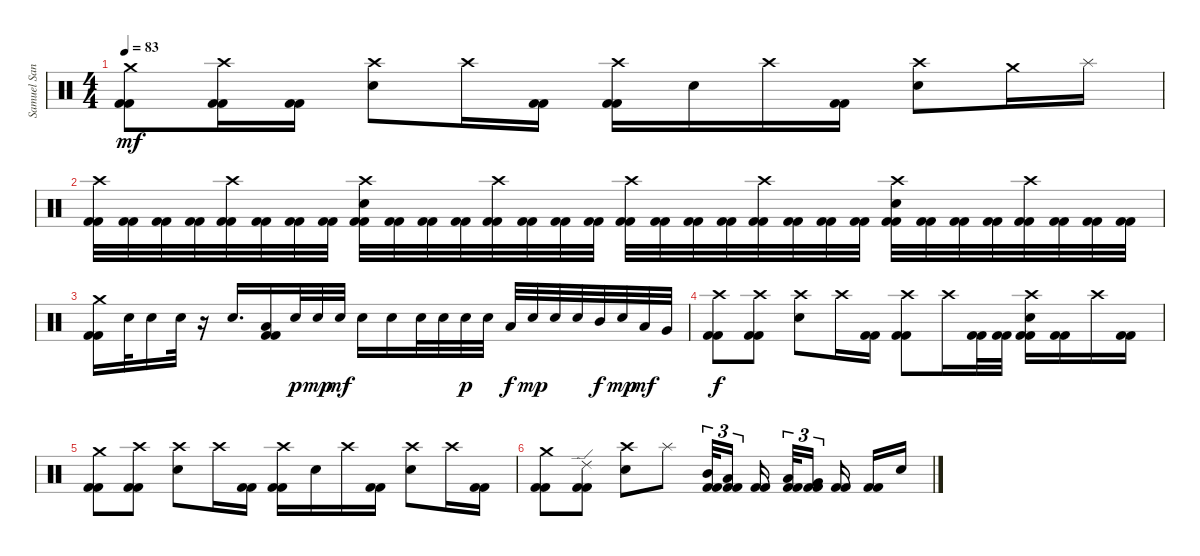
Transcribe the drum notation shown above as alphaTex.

\track ("Samuel Santiago" "Samuel San") {instrument percussion}
\staff {score}
\articulation defaults
\ts (4 4)
\tempo 83
\clef neutral
\ks c
("Crash medium (hit)" "Kick (hit) 2" "Kick (hit) 2").8{dy mf} ("Crash high (hit)" "Kick (hit) 2" "Kick (hit) 2").16 ("Kick (hit) 2" "Kick (hit) 2").16 ("Crash high (hit)" "Electric Snare (hit)").8 "Crash high (hit)".16 ("Kick (hit) 2" "Kick (hit) 2").16 ("Crash high (hit)" "Kick (hit) 2" "Kick (hit) 2").16 "Electric Snare (hit)".16 "Crash high (hit)".16 ("Kick (hit) 2" "Kick (hit) 2").16 ("Crash high (hit)" "Electric Snare (hit)").8 "Crash medium (hit)".16 "Splash (hit)".16 |
("Crash high (hit)" "Kick (hit) 2" "Kick (hit) 2").32 ("Kick (hit) 2" "Kick (hit) 2").32 ("Kick (hit) 2" "Kick (hit) 2").32 ("Kick (hit) 2" "Kick (hit) 2").32 ("Crash high (hit)" "Kick (hit) 2" "Kick (hit) 2").32 ("Kick (hit) 2" "Kick (hit) 2").32 ("Kick (hit) 2" "Kick (hit) 2").32 ("Kick (hit) 2" "Kick (hit) 2").32 ("Crash high (hit)" "Electric Snare (hit)" "Kick (hit) 2" "Kick (hit) 2").32 ("Kick (hit) 2" "Kick (hit) 2").32 ("Kick (hit) 2" "Kick (hit) 2").32 ("Kick (hit) 2" "Kick (hit) 2").32 ("Crash high (hit)" "Kick (hit) 2" "Kick (hit) 2").32 ("Kick (hit) 2" "Kick (hit) 2").32 ("Kick (hit) 2" "Kick (hit) 2").32 ("Kick (hit) 2" "Kick (hit) 2").32 ("Crash high (hit)" "Kick (hit) 2" "Kick (hit) 2").32 ("Kick (hit) 2" "Kick (hit) 2").32 ("Kick (hit) 2" "Kick (hit) 2").32 ("Kick (hit) 2" "Kick (hit) 2").32 ("Crash high (hit)" "Kick (hit) 2" "Kick (hit) 2").32 ("Kick (hit) 2" "Kick (hit) 2").32 ("Kick (hit) 2" "Kick (hit) 2").32 ("Kick (hit) 2" "Kick (hit) 2").32 ("Crash high (hit)" "Electric Snare (hit)" "Kick (hit) 2" "Kick (hit) 2").32 ("Kick (hit) 2" "Kick (hit) 2").32 ("Kick (hit) 2" "Kick (hit) 2").32 ("Kick (hit) 2" "Kick (hit) 2").32 ("Crash high (hit)" "Kick (hit) 2" "Kick (hit) 2").32 ("Kick (hit) 2" "Kick (hit) 2").32 ("Kick (hit) 2" "Kick (hit) 2").32 ("Kick (hit) 2" "Kick (hit) 2").32 |
("Crash medium (hit)" "Kick (hit) 2" "Kick (hit) 2").16 "Electric Snare (hit)".32 "Electric Snare (hit)".16 "Electric Snare (hit)".32 r.16 "Electric Snare (hit)".16{d} ("Low Tom (hit)" "Kick (hit) 2" "Kick (hit) 2").16 "Electric Snare (hit)".32{dy p} "Electric Snare (hit)".32{dy mp} "Electric Snare (hit)".32{dy mf} "Electric Snare (hit)".16 "Electric Snare (hit)".16 "Electric Snare (hit)".32 "Electric Snare (hit)".32 "Electric Snare (hit)".32{dy p} "Electric Snare (hit)".32 "Low Tom (hit)".32{dy f} "Electric Snare (hit)".32{dy mp} "Electric Snare (hit)".32 "Electric Snare (hit)".32 "Mid Tom (hit)".32{dy f} "Electric Snare (hit)".32{dy mp} "Low Tom (hit)".32{dy mf} "Very Low Tom (hit)".32 |
("Crash high (hit)" "Kick (hit) 2" "Kick (hit) 2").8{dy f} ("Crash high (hit)" "Kick (hit) 2" "Kick (hit) 2").8 ("Crash high (hit)" "Electric Snare (hit)").8 "Crash high (hit)".16 ("Kick (hit) 2" "Kick (hit) 2").16 ("Crash high (hit)" "Kick (hit) 2" "Kick (hit) 2").8 "Crash high (hit)".16 ("Kick (hit) 2" "Kick (hit) 2").32 ("Kick (hit) 2" "Kick (hit) 2").32 ("Crash high (hit)" "Electric Snare (hit)" "Kick (hit) 2" "Kick (hit) 2").16 ("Kick (hit) 2" "Kick (hit) 2").16 "Crash high (hit)".16 ("Kick (hit) 2" "Kick (hit) 2").16 |
("Crash medium (hit)" "Kick (hit) 2" "Kick (hit) 2").8 ("Crash high (hit)" "Kick (hit) 2" "Kick (hit) 2").8 ("Crash high (hit)" "Electric Snare (hit)").8 "Crash high (hit)".16 ("Kick (hit) 2" "Kick (hit) 2").16 ("Crash high (hit)" "Kick (hit) 2" "Kick (hit) 2").16 "Electric Snare (hit)".16 "Crash high (hit)".16 ("Kick (hit) 2" "Kick (hit) 2").16 ("Crash high (hit)" "Electric Snare (hit)").8 "Crash high (hit)".16 ("Kick (hit) 2" "Kick (hit) 2").16 |
("Crash medium (hit)" "Kick (hit) 2" "Kick (hit) 2").8 ("Ride (edge) 2" "Kick (hit) 2" "Kick (hit) 2").8 ("Crash high (hit)" "Electric Snare (hit)").8 "Splash (hit)".8 ("Mid Tom (hit)" "Kick (hit) 2" "Kick (hit) 2").32{tu (3 2)} ("Low Tom (hit)" "Kick (hit) 2" "Kick (hit) 2").16{tu (3 2) beam splitsecondary} ("Kick (hit) 2" "Kick (hit) 2").16{beam splitsecondary} ("Low Tom (hit)" "Kick (hit) 2" "Kick (hit) 2").32{tu (3 2)} ("Very Low Tom (hit)" "Kick (hit) 2" "Kick (hit) 2").16{tu (3 2) beam splitsecondary} ("Kick (hit) 2" "Kick (hit) 2").16 ("Kick (hit) 2" "Kick (hit) 2").16 "Electric Snare (hit)".16
